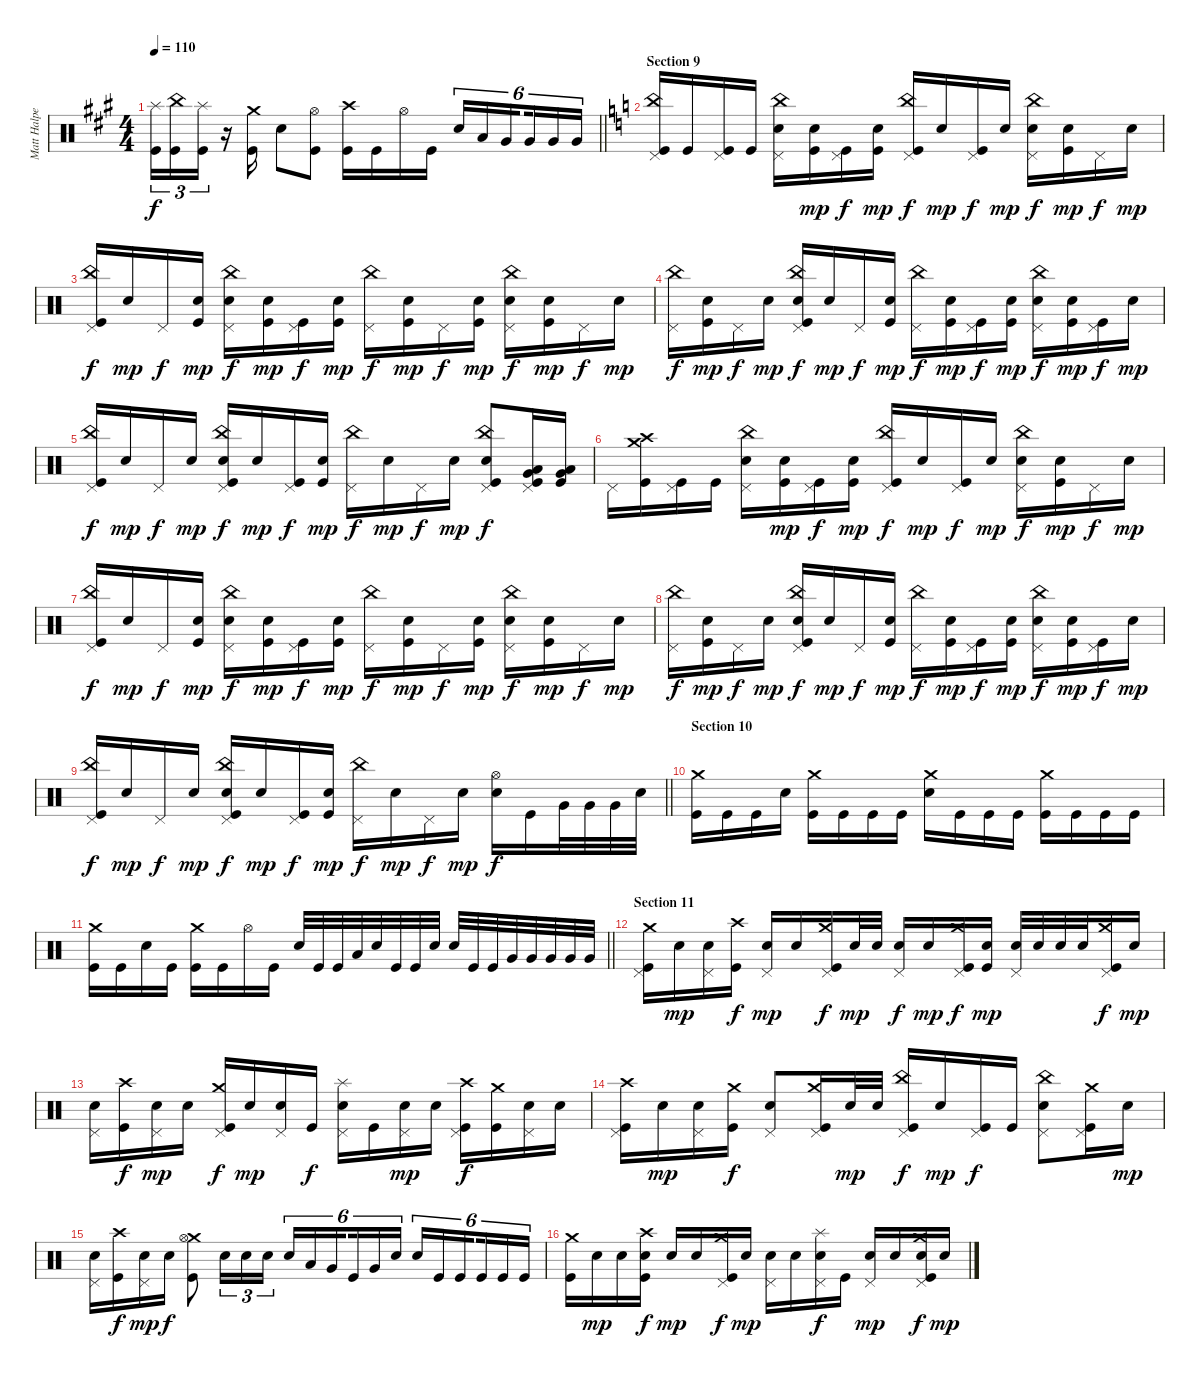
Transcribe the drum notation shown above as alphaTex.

\track ("Matt Halpern" "Matt Halpe") {instrument percussion}
\staff {score}
\articulation defaults
\ts (4 4)
\tempo 110
\clef neutral
\barLineRight lightlight
\ks f#minor
("Splash (hit)" "Kick (hit)").16{tu (3 2) dy f} ("China (hit)" "Kick (hit)").16{tu (3 2)} ("Splash (hit)" "Kick (hit)").16{tu (3 2)} r.16 ("Crash medium (hit)" "Kick (hit)").16 "Electric Snare (hit)".8 ("Hi-Hat (open)" "Kick (hit)").8 ("Crash high (hit)" "Kick (hit)").16 "Kick (hit)".16 "Hi-Hat (open)".16 "Kick (hit)".16 "Electric Snare (hit)".16{tu (6 4)} "Low Tom (hit)".16{tu (6 4)} "Very Low Tom (hit)".16{tu (6 4) beam splitsecondary} "Very Low Tom (hit)".16{tu (6 4)} "Very Low Tom (hit)".16{tu (6 4)} "Very Low Tom (hit)".16{tu (6 4)} |
\section ("" "Section 9")
\ks c
("China (hit)" "Kick (hit)" "Pedal Hi-Hat (hit)").16 "Kick (hit)".16 ("Kick (hit)" "Pedal Hi-Hat (hit)").16 "Kick (hit)".16 ("China (hit)" "Electric Snare (hit)" "Pedal Hi-Hat (hit)").16 ("Electric Snare (hit)" "Kick (hit)").16{dy mp} ("Kick (hit)" "Pedal Hi-Hat (hit)").16{dy f} ("Electric Snare (hit)" "Kick (hit)").16{dy mp} ("China (hit)" "Kick (hit)" "Pedal Hi-Hat (hit)").16{dy f} "Electric Snare (hit)".16{dy mp} ("Kick (hit)" "Pedal Hi-Hat (hit)").16{dy f} "Electric Snare (hit)".16{dy mp} ("China (hit)" "Electric Snare (hit)" "Pedal Hi-Hat (hit)").16{dy f} ("Electric Snare (hit)" "Kick (hit)").16{dy mp} "Pedal Hi-Hat (hit)".16{dy f} "Electric Snare (hit)".16{dy mp} |
("China (hit)" "Kick (hit)" "Pedal Hi-Hat (hit)").16{dy f} "Electric Snare (hit)".16{dy mp} "Pedal Hi-Hat (hit)".16{dy f} ("Electric Snare (hit)" "Kick (hit)").16{dy mp} ("China (hit)" "Electric Snare (hit)" "Pedal Hi-Hat (hit)").16{dy f} ("Electric Snare (hit)" "Kick (hit)").16{dy mp} ("Kick (hit)" "Pedal Hi-Hat (hit)").16{dy f} ("Electric Snare (hit)" "Kick (hit)").16{dy mp} ("China (hit)" "Pedal Hi-Hat (hit)").16{dy f} ("Electric Snare (hit)" "Kick (hit)").16{dy mp} "Pedal Hi-Hat (hit)".16{dy f} ("Electric Snare (hit)" "Kick (hit)").16{dy mp} ("China (hit)" "Electric Snare (hit)" "Pedal Hi-Hat (hit)").16{dy f} ("Electric Snare (hit)" "Kick (hit)").16{dy mp} "Pedal Hi-Hat (hit)".16{dy f} "Electric Snare (hit)".16{dy mp} |
("China (hit)" "Pedal Hi-Hat (hit)").16{dy f} ("Electric Snare (hit)" "Kick (hit)").16{dy mp} "Pedal Hi-Hat (hit)".16{dy f} "Electric Snare (hit)".16{dy mp} ("China (hit)" "Electric Snare (hit)" "Kick (hit)" "Pedal Hi-Hat (hit)").16{dy f} "Electric Snare (hit)".16{dy mp} "Pedal Hi-Hat (hit)".16{dy f} ("Electric Snare (hit)" "Kick (hit)").16{dy mp} ("China (hit)" "Pedal Hi-Hat (hit)").16{dy f} ("Electric Snare (hit)" "Kick (hit)").16{dy mp} ("Kick (hit)" "Pedal Hi-Hat (hit)").16{dy f} ("Electric Snare (hit)" "Kick (hit)").16{dy mp} ("China (hit)" "Electric Snare (hit)" "Pedal Hi-Hat (hit)").16{dy f} ("Electric Snare (hit)" "Kick (hit)").16{dy mp} ("Kick (hit)" "Pedal Hi-Hat (hit)").16{dy f} "Electric Snare (hit)".16{dy mp} |
("China (hit)" "Kick (hit)" "Pedal Hi-Hat (hit)").16{dy f} "Electric Snare (hit)".16{dy mp} "Pedal Hi-Hat (hit)".16{dy f} "Electric Snare (hit)".16{dy mp} ("China (hit)" "Electric Snare (hit)" "Kick (hit)" "Pedal Hi-Hat (hit)").16{dy f} "Electric Snare (hit)".16{dy mp} ("Kick (hit)" "Pedal Hi-Hat (hit)").16{dy f} ("Electric Snare (hit)" "Kick (hit)").16{dy mp} ("China (hit)" "Pedal Hi-Hat (hit)").16{dy f} "Electric Snare (hit)".16{dy mp} "Pedal Hi-Hat (hit)".16{dy f} "Electric Snare (hit)".16{dy mp} ("China (hit)" "Electric Snare (hit)" "Kick (hit)" "Pedal Hi-Hat (hit)").8{dy f} ("Low Tom (hit)" "Very Low Tom (hit)" "Kick (hit)" "Pedal Hi-Hat (hit)").16 ("Low Tom (hit)" "Very Low Tom (hit)" "Kick (hit)").16 |
"Pedal Hi-Hat (hit)".16 ("Crash high (hit)" "Crash medium (hit)" "Kick (hit)").16 ("Kick (hit)" "Pedal Hi-Hat (hit)").16 "Kick (hit)".16 ("China (hit)" "Electric Snare (hit)" "Pedal Hi-Hat (hit)").16 ("Electric Snare (hit)" "Kick (hit)").16{dy mp} ("Kick (hit)" "Pedal Hi-Hat (hit)").16{dy f} ("Electric Snare (hit)" "Kick (hit)").16{dy mp} ("China (hit)" "Kick (hit)" "Pedal Hi-Hat (hit)").16{dy f} "Electric Snare (hit)".16{dy mp} ("Kick (hit)" "Pedal Hi-Hat (hit)").16{dy f} "Electric Snare (hit)".16{dy mp} ("China (hit)" "Electric Snare (hit)" "Pedal Hi-Hat (hit)").16{dy f} ("Electric Snare (hit)" "Kick (hit)").16{dy mp} "Pedal Hi-Hat (hit)".16{dy f} "Electric Snare (hit)".16{dy mp} |
("China (hit)" "Kick (hit)" "Pedal Hi-Hat (hit)").16{dy f} "Electric Snare (hit)".16{dy mp} "Pedal Hi-Hat (hit)".16{dy f} ("Electric Snare (hit)" "Kick (hit)").16{dy mp} ("China (hit)" "Electric Snare (hit)" "Pedal Hi-Hat (hit)").16{dy f} ("Electric Snare (hit)" "Kick (hit)").16{dy mp} ("Kick (hit)" "Pedal Hi-Hat (hit)").16{dy f} ("Electric Snare (hit)" "Kick (hit)").16{dy mp} ("China (hit)" "Pedal Hi-Hat (hit)").16{dy f} ("Electric Snare (hit)" "Kick (hit)").16{dy mp} "Pedal Hi-Hat (hit)".16{dy f} ("Electric Snare (hit)" "Kick (hit)").16{dy mp} ("China (hit)" "Electric Snare (hit)" "Pedal Hi-Hat (hit)").16{dy f} ("Electric Snare (hit)" "Kick (hit)").16{dy mp} "Pedal Hi-Hat (hit)".16{dy f} "Electric Snare (hit)".16{dy mp} |
("China (hit)" "Pedal Hi-Hat (hit)").16{dy f} ("Electric Snare (hit)" "Kick (hit)").16{dy mp} "Pedal Hi-Hat (hit)".16{dy f} "Electric Snare (hit)".16{dy mp} ("China (hit)" "Electric Snare (hit)" "Kick (hit)" "Pedal Hi-Hat (hit)").16{dy f} "Electric Snare (hit)".16{dy mp} "Pedal Hi-Hat (hit)".16{dy f} ("Electric Snare (hit)" "Kick (hit)").16{dy mp} ("China (hit)" "Pedal Hi-Hat (hit)").16{dy f} ("Electric Snare (hit)" "Kick (hit)").16{dy mp} ("Kick (hit)" "Pedal Hi-Hat (hit)").16{dy f} ("Electric Snare (hit)" "Kick (hit)").16{dy mp} ("China (hit)" "Electric Snare (hit)" "Pedal Hi-Hat (hit)").16{dy f} ("Electric Snare (hit)" "Kick (hit)").16{dy mp} ("Kick (hit)" "Pedal Hi-Hat (hit)").16{dy f} "Electric Snare (hit)".16{dy mp} |
\barLineRight lightlight
("China (hit)" "Kick (hit)" "Pedal Hi-Hat (hit)").16{dy f} "Electric Snare (hit)".16{dy mp} "Pedal Hi-Hat (hit)".16{dy f} "Electric Snare (hit)".16{dy mp} ("China (hit)" "Electric Snare (hit)" "Kick (hit)" "Pedal Hi-Hat (hit)").16{dy f} "Electric Snare (hit)".16{dy mp} ("Kick (hit)" "Pedal Hi-Hat (hit)").16{dy f} ("Electric Snare (hit)" "Kick (hit)").16{dy mp} ("China (hit)" "Pedal Hi-Hat (hit)").16{dy f} "Electric Snare (hit)".16{dy mp} "Pedal Hi-Hat (hit)".16{dy f} "Electric Snare (hit)".16{dy mp} ("Hi-Hat (open)" "Electric Snare (hit)").16{dy f} "Kick (hit)".16 "Very Low Tom (hit)".32 "Very Low Tom (hit)".32 "Very Low Tom (hit)".32 "Electric Snare (hit)".32 |
\section ("" "Section 10")
("Crash medium (hit)" "Kick (hit)").16 "Kick (hit)".16 "Kick (hit)".16 "Electric Snare (hit)".16 ("Crash medium (hit)" "Kick (hit)").16 "Kick (hit)".16 "Kick (hit)".16 "Kick (hit)".16 ("Crash medium (hit)" "Electric Snare (hit)").16 "Kick (hit)".16 "Kick (hit)".16 "Kick (hit)".16 ("Crash medium (hit)" "Kick (hit)").16 "Kick (hit)".16 "Kick (hit)".16 "Kick (hit)".16 |
\barLineRight lightlight
("Crash medium (hit)" "Kick (hit)").16 "Kick (hit)".16 "Electric Snare (hit)".16 "Kick (hit)".16 ("Crash medium (hit)" "Kick (hit)").16 "Kick (hit)".16 "Hi-Hat (open)".16 "Kick (hit)".16 "Electric Snare (hit)".32 "Kick (hit)".32 "Kick (hit)".32 "Low Tom (hit)".32 "Electric Snare (hit)".32 "Kick (hit)".32 "Kick (hit)".32 "Electric Snare (hit)".32 "Electric Snare (hit)".32 "Kick (hit)".32 "Kick (hit)".32 "Very Low Tom (hit)".32 "Very Low Tom (hit)".32 "Very Low Tom (hit)".32 "Very Low Tom (hit)".32 "Very Low Tom (hit)".32 |
\section ("" "Section 11")
("Crash medium (hit)" "Kick (hit)" "Pedal Hi-Hat (hit)").16 "Electric Snare (hit)".16{dy mp} ("Electric Snare (hit)" "Pedal Hi-Hat (hit)").16 ("Crash high (hit)" "Kick (hit)").16{dy f} ("Electric Snare (hit)" "Pedal Hi-Hat (hit)").16{dy mp} "Electric Snare (hit)".16 ("Crash medium (hit)" "Kick (hit)" "Pedal Hi-Hat (hit)").16{dy f} "Electric Snare (hit)".32{dy mp} "Electric Snare (hit)".32 ("Electric Snare (hit)" "Pedal Hi-Hat (hit)").16{dy f} "Electric Snare (hit)".16{dy mp} ("Crash medium (hit)" "Kick (hit)" "Pedal Hi-Hat (hit)").16{dy f} ("Electric Snare (hit)" "Kick (hit)").16{dy mp} ("Electric Snare (hit)" "Pedal Hi-Hat (hit)").32 "Electric Snare (hit)".32 "Electric Snare (hit)".32 "Electric Snare (hit)".32 ("Crash medium (hit)" "Kick (hit)" "Pedal Hi-Hat (hit)").16{dy f} "Electric Snare (hit)".16{dy mp} |
("Electric Snare (hit)" "Pedal Hi-Hat (hit)").16 ("Crash high (hit)" "Kick (hit)").16{dy f} ("Electric Snare (hit)" "Pedal Hi-Hat (hit)").16{dy mp} "Electric Snare (hit)".16 ("Crash medium (hit)" "Kick (hit)" "Pedal Hi-Hat (hit)").16{dy f} "Electric Snare (hit)".16{dy mp} ("Electric Snare (hit)" "Pedal Hi-Hat (hit)").16 "Kick (hit)".16{dy f} ("Splash (hit)" "Electric Snare (hit)" "Pedal Hi-Hat (hit)").16 "Kick (hit)".16 ("Electric Snare (hit)" "Pedal Hi-Hat (hit)").16{dy mp} "Electric Snare (hit)".16 ("Crash high (hit)" "Kick (hit)" "Pedal Hi-Hat (hit)").16{dy f} ("Crash medium (hit)" "Kick (hit)").16 ("Electric Snare (hit)" "Pedal Hi-Hat (hit)").16 "Electric Snare (hit)".16 |
("Crash high (hit)" "Kick (hit)" "Pedal Hi-Hat (hit)").16 "Electric Snare (hit)".16{dy mp} ("Electric Snare (hit)" "Pedal Hi-Hat (hit)").16 ("Crash medium (hit)" "Kick (hit)").16{dy f} ("Electric Snare (hit)" "Pedal Hi-Hat (hit)").8 ("Crash medium (hit)" "Kick (hit)" "Pedal Hi-Hat (hit)").16 "Electric Snare (hit)".32{dy mp} "Electric Snare (hit)".32 ("China (hit)" "Kick (hit)" "Pedal Hi-Hat (hit)").16{dy f} "Electric Snare (hit)".16{dy mp} ("Kick (hit)" "Pedal Hi-Hat (hit)").16{dy f} "Kick (hit)".16 ("China (hit)" "Electric Snare (hit)" "Pedal Hi-Hat (hit)").8 ("Crash medium (hit)" "Kick (hit)" "Pedal Hi-Hat (hit)").16 "Electric Snare (hit)".16{dy mp} |
("Electric Snare (hit)" "Pedal Hi-Hat (hit)").16 ("Crash high (hit)" "Kick (hit)").16{dy f} ("Electric Snare (hit)" "Pedal Hi-Hat (hit)").16{dy mp} "Electric Snare (hit)".16{dy f} ("Crash medium (hit)" "Kick (hit)" "Hi-Hat (open)").8 "Electric Snare (hit)".16{tu (3 2)} "Electric Snare (hit)".16{tu (3 2)} "Electric Snare (hit)".16{tu (3 2)} "Electric Snare (hit)".16{tu (6 4)} "Low Tom (hit)".16{tu (6 4)} "Very Low Tom (hit)".16{tu (6 4) beam splitsecondary} "Kick (hit)".16{tu (6 4)} "Very Low Tom (hit)".16{tu (6 4)} "Electric Snare (hit)".16{tu (6 4)} "Electric Snare (hit)".16{tu (6 4)} "Kick (hit)".16{tu (6 4)} "Kick (hit)".16{tu (6 4) beam splitsecondary} "Kick (hit)".16{tu (6 4)} "Kick (hit)".16{tu (6 4)} "Kick (hit)".16{tu (6 4)} |
("Crash medium (hit)" "Kick (hit)").16 "Electric Snare (hit)".16{dy mp} "Electric Snare (hit)".16 ("Crash high (hit)" "Electric Snare (hit)" "Kick (hit)").16{dy f} "Electric Snare (hit)".16{dy mp} "Electric Snare (hit)".16 ("Crash medium (hit)" "Kick (hit)" "Pedal Hi-Hat (hit)").16{dy f} "Electric Snare (hit)".16{dy mp} ("Electric Snare (hit)" "Pedal Hi-Hat (hit)").16 "Electric Snare (hit)".16 ("Splash (hit)" "Electric Snare (hit)" "Pedal Hi-Hat (hit)").16{dy f} "Kick (hit)".16 ("Electric Snare (hit)" "Pedal Hi-Hat (hit)").16{dy mp} "Electric Snare (hit)".16 ("Crash medium (hit)" "Electric Snare (hit)" "Kick (hit)" "Pedal Hi-Hat (hit)").16{dy f} "Electric Snare (hit)".16{dy mp}
